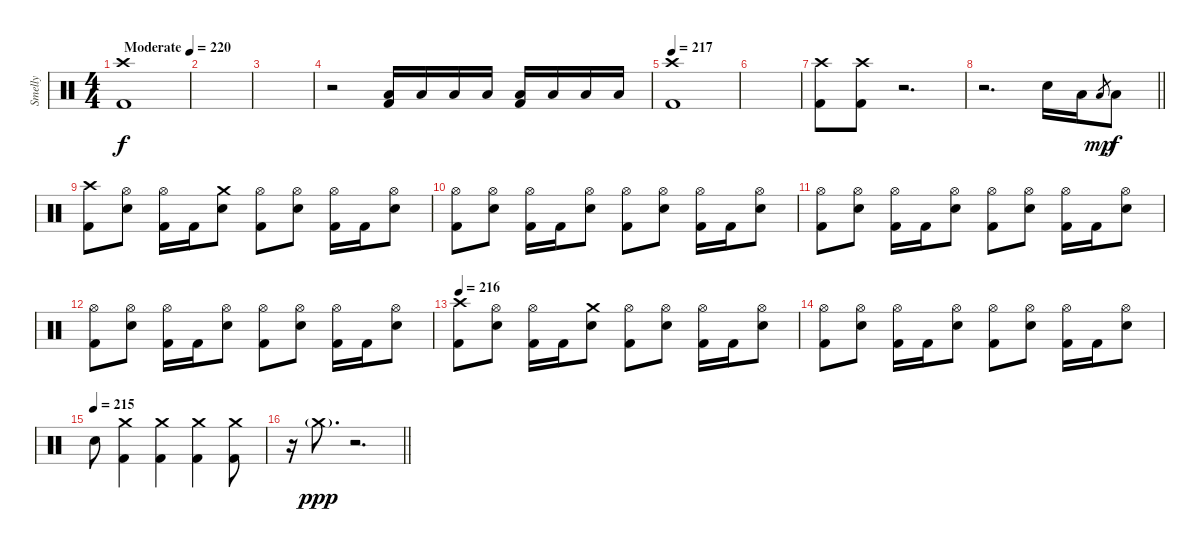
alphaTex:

\track ("Smelly" "Smelly") {instrument percussion}
\staff {score}
\articulation defaults
\ts (4 4)
\tempo (220 "Moderate")
\clef neutral
\ks c
("Crash high (hit)" "Kick (hit) 2").1{dy f} |
|
|
r.2 ("Low Tom (hit)" "Kick (hit) 2").16 "Low Tom (hit)".16 "Low Tom (hit)".16 "Low Tom (hit)".16 ("Low Floor Tom (hit)" "Kick (hit) 2").16 "Low Floor Tom (hit)".16 "Low Floor Tom (hit)".16 "Low Floor Tom (hit)".16 |
\tempo 217
("Crash high (hit)" "Kick (hit) 2").1 |
|
("Crash high (hit)" "Kick (hit) 2").8 ("Crash high (hit)" "Kick (hit) 2").8 r.2{d} |
\barLineRight lightlight
r.2{d} "Electric Snare (hit)".16 "Low Tom (hit)".16 "Low Floor Tom (hit)".8{gr dy mp} "Low Floor Tom (hit)".8{dy f} |
\section ("" "")
("Crash high (hit)" "Kick (hit) 2").8 ("Hi-Hat (open)" "Electric Snare (hit)").8 ("Hi-Hat (open)" "Kick (hit) 2").16 "Kick (hit) 2".16 ("Crash medium (hit)" "Electric Snare (hit)").8 ("Hi-Hat (open)" "Kick (hit) 2").8 ("Hi-Hat (open)" "Electric Snare (hit)").8 ("Hi-Hat (open)" "Kick (hit) 2").16 "Kick (hit) 2".16 ("Hi-Hat (open)" "Electric Snare (hit)").8 |
("Hi-Hat (open)" "Kick (hit) 2").8 ("Hi-Hat (open)" "Electric Snare (hit)").8 ("Hi-Hat (open)" "Kick (hit) 2").16 "Kick (hit) 2".16 ("Hi-Hat (open)" "Electric Snare (hit)").8 ("Hi-Hat (open)" "Kick (hit) 2").8 ("Hi-Hat (open)" "Electric Snare (hit)").8 ("Hi-Hat (open)" "Kick (hit) 2").16 "Kick (hit) 2".16 ("Hi-Hat (open)" "Electric Snare (hit)").8 |
("Hi-Hat (open)" "Kick (hit) 2").8 ("Hi-Hat (open)" "Electric Snare (hit)").8 ("Hi-Hat (open)" "Kick (hit) 2").16 "Kick (hit) 2".16 ("Hi-Hat (open)" "Electric Snare (hit)").8 ("Hi-Hat (open)" "Kick (hit) 2").8 ("Hi-Hat (open)" "Electric Snare (hit)").8 ("Hi-Hat (open)" "Kick (hit) 2").16 "Kick (hit) 2".16 ("Hi-Hat (open)" "Electric Snare (hit)").8 |
("Hi-Hat (open)" "Kick (hit) 2").8 ("Hi-Hat (open)" "Electric Snare (hit)").8 ("Hi-Hat (open)" "Kick (hit) 2").16 "Kick (hit) 2".16 ("Hi-Hat (open)" "Electric Snare (hit)").8 ("Hi-Hat (open)" "Kick (hit) 2").8 ("Hi-Hat (open)" "Electric Snare (hit)").8 ("Hi-Hat (open)" "Kick (hit) 2").16 "Kick (hit) 2".16 ("Hi-Hat (open)" "Electric Snare (hit)").8 |
\tempo 216
("Crash high (hit)" "Kick (hit) 2").8 ("Hi-Hat (open)" "Electric Snare (hit)").8 ("Hi-Hat (open)" "Kick (hit) 2").16 "Kick (hit) 2".16 ("Crash medium (hit)" "Electric Snare (hit)").8 ("Hi-Hat (open)" "Kick (hit) 2").8 ("Hi-Hat (open)" "Electric Snare (hit)").8 ("Hi-Hat (open)" "Kick (hit) 2").16 "Kick (hit) 2".16 ("Hi-Hat (open)" "Electric Snare (hit)").8 |
("Hi-Hat (open)" "Kick (hit) 2").8 ("Hi-Hat (open)" "Electric Snare (hit)").8 ("Hi-Hat (open)" "Kick (hit) 2").16 "Kick (hit) 2".16 ("Hi-Hat (open)" "Electric Snare (hit)").8 ("Hi-Hat (open)" "Kick (hit) 2").8 ("Hi-Hat (open)" "Electric Snare (hit)").8 ("Hi-Hat (open)" "Kick (hit) 2").16 "Kick (hit) 2".16 ("Hi-Hat (open)" "Electric Snare (hit)").8 |
\tempo (215)
"Electric Snare (hit)".8 ("Crash medium (hit)" "Kick (hit) 2").4 ("Crash medium (hit)" "Kick (hit) 2").4 ("Crash medium (hit)" "Kick (hit) 2").4 ("Crash medium (hit)" "Kick (hit) 2").8 |
\barLineRight lightlight
r.16 "Crash medium (hit)"{g}.8{d dy ppp} r.2{d}
